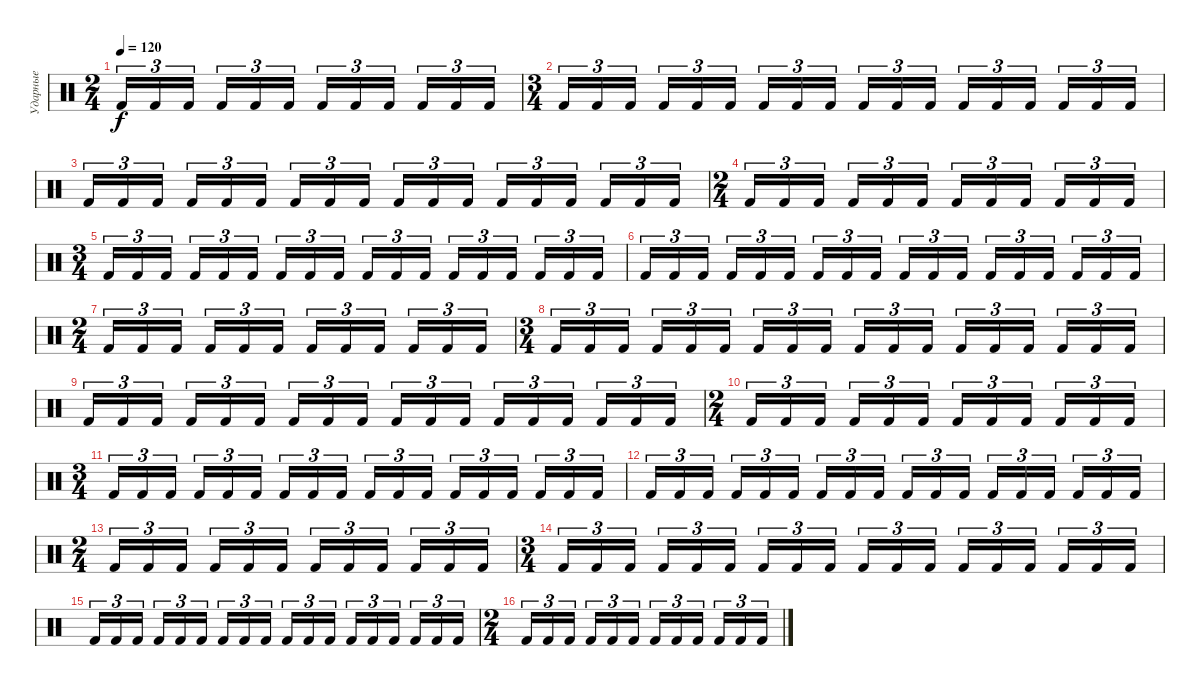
\track ("Ударные" "Ударные") {instrument percussion}
\staff {score}
\articulation defaults
\ts (2 4)
\tempo 120
\clef neutral
\ks c "Kick (hit) 2".16{tu (3 2) dy f} "Kick (hit) 2".16{tu (3 2)} "Kick (hit) 2".16{tu (3 2)} "Kick (hit) 2".16{tu (3 2)} "Kick (hit) 2".16{tu (3 2)} "Kick (hit) 2".16{tu (3 2)} "Kick (hit) 2".16{tu (3 2)} "Kick (hit) 2".16{tu (3 2)} "Kick (hit) 2".16{tu (3 2)} "Kick (hit) 2".16{tu (3 2)} "Kick (hit) 2".16{tu (3 2)} "Kick (hit) 2".16{tu (3 2)}
|
\ts (3 4)
"Kick (hit) 2".16{tu (3 2)} "Kick (hit) 2".16{tu (3 2)} "Kick (hit) 2".16{tu (3 2)} "Kick (hit) 2".16{tu (3 2)} "Kick (hit) 2".16{tu (3 2)} "Kick (hit) 2".16{tu (3 2)} "Kick (hit) 2".16{tu (3 2)} "Kick (hit) 2".16{tu (3 2)} "Kick (hit) 2".16{tu (3 2)} "Kick (hit) 2".16{tu (3 2)} "Kick (hit) 2".16{tu (3 2)} "Kick (hit) 2".16{tu (3 2)} "Kick (hit) 2".16{tu (3 2)} "Kick (hit) 2".16{tu (3 2)} "Kick (hit) 2".16{tu (3 2)} "Kick (hit) 2".16{tu (3 2)} "Kick (hit) 2".16{tu (3 2)} "Kick (hit) 2".16{tu (3 2)} |
"Kick (hit) 2".16{tu (3 2)} "Kick (hit) 2".16{tu (3 2)} "Kick (hit) 2".16{tu (3 2)} "Kick (hit) 2".16{tu (3 2)} "Kick (hit) 2".16{tu (3 2)} "Kick (hit) 2".16{tu (3 2)} "Kick (hit) 2".16{tu (3 2)} "Kick (hit) 2".16{tu (3 2)} "Kick (hit) 2".16{tu (3 2)} "Kick (hit) 2".16{tu (3 2)} "Kick (hit) 2".16{tu (3 2)} "Kick (hit) 2".16{tu (3 2)} "Kick (hit) 2".16{tu (3 2)} "Kick (hit) 2".16{tu (3 2)} "Kick (hit) 2".16{tu (3 2)} "Kick (hit) 2".16{tu (3 2)} "Kick (hit) 2".16{tu (3 2)} "Kick (hit) 2".16{tu (3 2)} |
\ts (2 4)
"Kick (hit) 2".16{tu (3 2)} "Kick (hit) 2".16{tu (3 2)} "Kick (hit) 2".16{tu (3 2)} "Kick (hit) 2".16{tu (3 2)} "Kick (hit) 2".16{tu (3 2)} "Kick (hit) 2".16{tu (3 2)} "Kick (hit) 2".16{tu (3 2)} "Kick (hit) 2".16{tu (3 2)} "Kick (hit) 2".16{tu (3 2)} "Kick (hit) 2".16{tu (3 2)} "Kick (hit) 2".16{tu (3 2)} "Kick (hit) 2".16{tu (3 2)} |
\ts (3 4)
"Kick (hit) 2".16{tu (3 2)} "Kick (hit) 2".16{tu (3 2)} "Kick (hit) 2".16{tu (3 2)} "Kick (hit) 2".16{tu (3 2)} "Kick (hit) 2".16{tu (3 2)} "Kick (hit) 2".16{tu (3 2)} "Kick (hit) 2".16{tu (3 2)} "Kick (hit) 2".16{tu (3 2)} "Kick (hit) 2".16{tu (3 2)} "Kick (hit) 2".16{tu (3 2)} "Kick (hit) 2".16{tu (3 2)} "Kick (hit) 2".16{tu (3 2)} "Kick (hit) 2".16{tu (3 2)} "Kick (hit) 2".16{tu (3 2)} "Kick (hit) 2".16{tu (3 2)} "Kick (hit) 2".16{tu (3 2)} "Kick (hit) 2".16{tu (3 2)} "Kick (hit) 2".16{tu (3 2)} |
"Kick (hit) 2".16{tu (3 2)} "Kick (hit) 2".16{tu (3 2)} "Kick (hit) 2".16{tu (3 2)} "Kick (hit) 2".16{tu (3 2)} "Kick (hit) 2".16{tu (3 2)} "Kick (hit) 2".16{tu (3 2)} "Kick (hit) 2".16{tu (3 2)} "Kick (hit) 2".16{tu (3 2)} "Kick (hit) 2".16{tu (3 2)} "Kick (hit) 2".16{tu (3 2)} "Kick (hit) 2".16{tu (3 2)} "Kick (hit) 2".16{tu (3 2)} "Kick (hit) 2".16{tu (3 2)} "Kick (hit) 2".16{tu (3 2)} "Kick (hit) 2".16{tu (3 2)} "Kick (hit) 2".16{tu (3 2)} "Kick (hit) 2".16{tu (3 2)} "Kick (hit) 2".16{tu (3 2)} |
\ts (2 4)
"Kick (hit) 2".16{tu (3 2)} "Kick (hit) 2".16{tu (3 2)} "Kick (hit) 2".16{tu (3 2)} "Kick (hit) 2".16{tu (3 2)} "Kick (hit) 2".16{tu (3 2)} "Kick (hit) 2".16{tu (3 2)} "Kick (hit) 2".16{tu (3 2)} "Kick (hit) 2".16{tu (3 2)} "Kick (hit) 2".16{tu (3 2)} "Kick (hit) 2".16{tu (3 2)} "Kick (hit) 2".16{tu (3 2)} "Kick (hit) 2".16{tu (3 2)} |
\ts (3 4)
"Kick (hit) 2".16{tu (3 2)} "Kick (hit) 2".16{tu (3 2)} "Kick (hit) 2".16{tu (3 2)} "Kick (hit) 2".16{tu (3 2)} "Kick (hit) 2".16{tu (3 2)} "Kick (hit) 2".16{tu (3 2)} "Kick (hit) 2".16{tu (3 2)} "Kick (hit) 2".16{tu (3 2)} "Kick (hit) 2".16{tu (3 2)} "Kick (hit) 2".16{tu (3 2)} "Kick (hit) 2".16{tu (3 2)} "Kick (hit) 2".16{tu (3 2)} "Kick (hit) 2".16{tu (3 2)} "Kick (hit) 2".16{tu (3 2)} "Kick (hit) 2".16{tu (3 2)} "Kick (hit) 2".16{tu (3 2)} "Kick (hit) 2".16{tu (3 2)} "Kick (hit) 2".16{tu (3 2)} |
"Kick (hit) 2".16{tu (3 2)} "Kick (hit) 2".16{tu (3 2)} "Kick (hit) 2".16{tu (3 2)} "Kick (hit) 2".16{tu (3 2)} "Kick (hit) 2".16{tu (3 2)} "Kick (hit) 2".16{tu (3 2)} "Kick (hit) 2".16{tu (3 2)} "Kick (hit) 2".16{tu (3 2)} "Kick (hit) 2".16{tu (3 2)} "Kick (hit) 2".16{tu (3 2)} "Kick (hit) 2".16{tu (3 2)} "Kick (hit) 2".16{tu (3 2)} "Kick (hit) 2".16{tu (3 2)} "Kick (hit) 2".16{tu (3 2)} "Kick (hit) 2".16{tu (3 2)} "Kick (hit) 2".16{tu (3 2)} "Kick (hit) 2".16{tu (3 2)} "Kick (hit) 2".16{tu (3 2)} |
\ts (2 4)
"Kick (hit) 2".16{tu (3 2)} "Kick (hit) 2".16{tu (3 2)} "Kick (hit) 2".16{tu (3 2)} "Kick (hit) 2".16{tu (3 2)} "Kick (hit) 2".16{tu (3 2)} "Kick (hit) 2".16{tu (3 2)} "Kick (hit) 2".16{tu (3 2)} "Kick (hit) 2".16{tu (3 2)} "Kick (hit) 2".16{tu (3 2)} "Kick (hit) 2".16{tu (3 2)} "Kick (hit) 2".16{tu (3 2)} "Kick (hit) 2".16{tu (3 2)} |
\ts (3 4)
"Kick (hit) 2".16{tu (3 2)} "Kick (hit) 2".16{tu (3 2)} "Kick (hit) 2".16{tu (3 2)} "Kick (hit) 2".16{tu (3 2)} "Kick (hit) 2".16{tu (3 2)} "Kick (hit) 2".16{tu (3 2)} "Kick (hit) 2".16{tu (3 2)} "Kick (hit) 2".16{tu (3 2)} "Kick (hit) 2".16{tu (3 2)} "Kick (hit) 2".16{tu (3 2)} "Kick (hit) 2".16{tu (3 2)} "Kick (hit) 2".16{tu (3 2)} "Kick (hit) 2".16{tu (3 2)} "Kick (hit) 2".16{tu (3 2)} "Kick (hit) 2".16{tu (3 2)} "Kick (hit) 2".16{tu (3 2)} "Kick (hit) 2".16{tu (3 2)} "Kick (hit) 2".16{tu (3 2)} |
"Kick (hit) 2".16{tu (3 2)} "Kick (hit) 2".16{tu (3 2)} "Kick (hit) 2".16{tu (3 2)} "Kick (hit) 2".16{tu (3 2)} "Kick (hit) 2".16{tu (3 2)} "Kick (hit) 2".16{tu (3 2)} "Kick (hit) 2".16{tu (3 2)} "Kick (hit) 2".16{tu (3 2)} "Kick (hit) 2".16{tu (3 2)} "Kick (hit) 2".16{tu (3 2)} "Kick (hit) 2".16{tu (3 2)} "Kick (hit) 2".16{tu (3 2)} "Kick (hit) 2".16{tu (3 2)} "Kick (hit) 2".16{tu (3 2)} "Kick (hit) 2".16{tu (3 2)} "Kick (hit) 2".16{tu (3 2)} "Kick (hit) 2".16{tu (3 2)} "Kick (hit) 2".16{tu (3 2)} |
\ts (2 4)
"Kick (hit) 2".16{tu (3 2)} "Kick (hit) 2".16{tu (3 2)} "Kick (hit) 2".16{tu (3 2)} "Kick (hit) 2".16{tu (3 2)} "Kick (hit) 2".16{tu (3 2)} "Kick (hit) 2".16{tu (3 2)} "Kick (hit) 2".16{tu (3 2)} "Kick (hit) 2".16{tu (3 2)} "Kick (hit) 2".16{tu (3 2)} "Kick (hit) 2".16{tu (3 2)} "Kick (hit) 2".16{tu (3 2)} "Kick (hit) 2".16{tu (3 2)} |
\ts (3 4)
"Kick (hit) 2".16{tu (3 2)} "Kick (hit) 2".16{tu (3 2)} "Kick (hit) 2".16{tu (3 2)} "Kick (hit) 2".16{tu (3 2)} "Kick (hit) 2".16{tu (3 2)} "Kick (hit) 2".16{tu (3 2)} "Kick (hit) 2".16{tu (3 2)} "Kick (hit) 2".16{tu (3 2)} "Kick (hit) 2".16{tu (3 2)} "Kick (hit) 2".16{tu (3 2)} "Kick (hit) 2".16{tu (3 2)} "Kick (hit) 2".16{tu (3 2)} "Kick (hit) 2".16{tu (3 2)} "Kick (hit) 2".16{tu (3 2)} "Kick (hit) 2".16{tu (3 2)} "Kick (hit) 2".16{tu (3 2)} "Kick (hit) 2".16{tu (3 2)} "Kick (hit) 2".16{tu (3 2)} |
"Kick (hit) 2".16{tu (3 2)} "Kick (hit) 2".16{tu (3 2)} "Kick (hit) 2".16{tu (3 2)} "Kick (hit) 2".16{tu (3 2)} "Kick (hit) 2".16{tu (3 2)} "Kick (hit) 2".16{tu (3 2)} "Kick (hit) 2".16{tu (3 2)} "Kick (hit) 2".16{tu (3 2)} "Kick (hit) 2".16{tu (3 2)} "Kick (hit) 2".16{tu (3 2)} "Kick (hit) 2".16{tu (3 2)} "Kick (hit) 2".16{tu (3 2)} "Kick (hit) 2".16{tu (3 2)} "Kick (hit) 2".16{tu (3 2)} "Kick (hit) 2".16{tu (3 2)} "Kick (hit) 2".16{tu (3 2)} "Kick (hit) 2".16{tu (3 2)} "Kick (hit) 2".16{tu (3 2)} |
\ts (2 4)
"Kick (hit) 2".16{tu (3 2)} "Kick (hit) 2".16{tu (3 2)} "Kick (hit) 2".16{tu (3 2)} "Kick (hit) 2".16{tu (3 2)} "Kick (hit) 2".16{tu (3 2)} "Kick (hit) 2".16{tu (3 2)} "Kick (hit) 2".16{tu (3 2)} "Kick (hit) 2".16{tu (3 2)} "Kick (hit) 2".16{tu (3 2)} "Kick (hit) 2".16{tu (3 2)} "Kick (hit) 2".16{tu (3 2)} "Kick (hit) 2".16{tu (3 2)}
